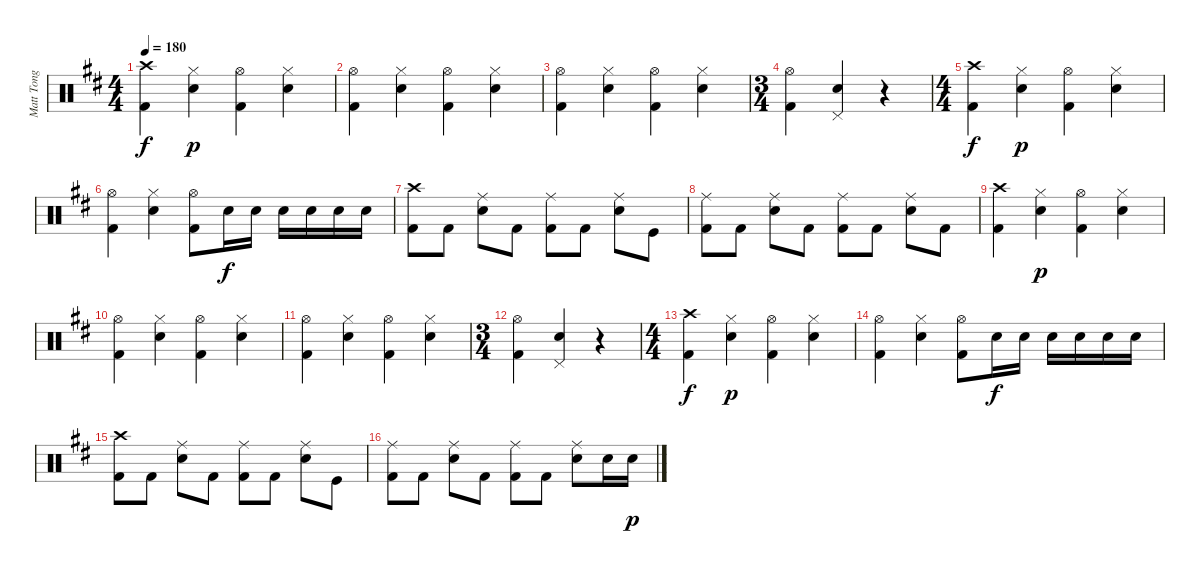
\track ("Matt Tong" "Matt Tong") {instrument percussion}
\staff {score}
\articulation defaults
\ts (4 4)
\tempo 180
\clef neutral
\ks d
("Crash high (hit)" "Kick (hit) 2").4{dy f} ("Hi-Hat (closed)" "Electric Snare (hit)").4{dy p} ("Hi-Hat (open)" "Kick (hit) 2").4 ("Hi-Hat (closed)" "Electric Snare (hit)").4 |
("Hi-Hat (open)" "Kick (hit) 2").4 ("Hi-Hat (closed)" "Electric Snare (hit)").4 ("Hi-Hat (open)" "Kick (hit) 2").4 ("Hi-Hat (closed)" "Electric Snare (hit)").4 |
("Hi-Hat (open)" "Kick (hit) 2").4 ("Hi-Hat (closed)" "Electric Snare (hit)").4 ("Hi-Hat (open)" "Kick (hit) 2").4 ("Hi-Hat (closed)" "Electric Snare (hit)").4 |
\ts (3 4)
("Hi-Hat (open)" "Kick (hit) 2").4 ("Pedal Hi-Hat (hit)" "Electric Snare (hit)").4 r.4 |
\ts (4 4)
("Crash high (hit)" "Kick (hit) 2").4{dy f} ("Hi-Hat (closed)" "Electric Snare (hit)").4{dy p} ("Hi-Hat (open)" "Kick (hit) 2").4 ("Hi-Hat (closed)" "Electric Snare (hit)").4 |
("Hi-Hat (open)" "Kick (hit) 2").4 ("Hi-Hat (closed)" "Electric Snare (hit)").4 ("Hi-Hat (open)" "Kick (hit) 2").8 "Electric Snare (hit)".16{dy f} "Electric Snare (hit)".16 "Electric Snare (hit)".16 "Electric Snare (hit)".16 "Electric Snare (hit)".16 "Electric Snare (hit)".16 |
("Crash high (hit)" "Kick (hit) 2").8 "Kick (hit) 2".8 ("Ride (middle)" "Electric Snare (hit)").8 "Kick (hit) 2".8 ("Ride (middle)" "Kick (hit) 2").8 "Kick (hit) 2".8 ("Ride (middle)" "Electric Snare (hit)").8 "Kick (hit)".8 |
("Ride (middle)" "Kick (hit) 2").8 "Kick (hit) 2".8 ("Ride (middle)" "Electric Snare (hit)").8 "Kick (hit) 2".8 ("Ride (middle)" "Kick (hit) 2").8 "Kick (hit) 2".8 ("Ride (middle)" "Electric Snare (hit)").8 "Kick (hit) 2".8 |
("Crash high (hit)" "Kick (hit) 2").4 ("Hi-Hat (closed)" "Electric Snare (hit)").4{dy p} ("Hi-Hat (open)" "Kick (hit) 2").4 ("Hi-Hat (closed)" "Electric Snare (hit)").4 |
("Hi-Hat (open)" "Kick (hit) 2").4 ("Hi-Hat (closed)" "Electric Snare (hit)").4 ("Hi-Hat (open)" "Kick (hit) 2").4 ("Hi-Hat (closed)" "Electric Snare (hit)").4 |
("Hi-Hat (open)" "Kick (hit) 2").4 ("Hi-Hat (closed)" "Electric Snare (hit)").4 ("Hi-Hat (open)" "Kick (hit) 2").4 ("Hi-Hat (closed)" "Electric Snare (hit)").4 |
\ts (3 4)
("Hi-Hat (open)" "Kick (hit) 2").4 ("Pedal Hi-Hat (hit)" "Electric Snare (hit)").4 r.4 |
\ts (4 4)
("Crash high (hit)" "Kick (hit) 2").4{dy f} ("Hi-Hat (closed)" "Electric Snare (hit)").4{dy p} ("Hi-Hat (open)" "Kick (hit) 2").4 ("Hi-Hat (closed)" "Electric Snare (hit)").4 |
("Hi-Hat (open)" "Kick (hit) 2").4 ("Hi-Hat (closed)" "Electric Snare (hit)").4 ("Hi-Hat (open)" "Kick (hit) 2").8 "Electric Snare (hit)".16{dy f} "Electric Snare (hit)".16 "Electric Snare (hit)".16 "Electric Snare (hit)".16 "Electric Snare (hit)".16 "Electric Snare (hit)".16 |
("Crash high (hit)" "Kick (hit) 2").8 "Kick (hit) 2".8 ("Ride (middle)" "Electric Snare (hit)").8 "Kick (hit) 2".8 ("Ride (middle)" "Kick (hit) 2").8 "Kick (hit) 2".8 ("Ride (middle)" "Electric Snare (hit)").8 "Kick (hit)".8 |
("Ride (middle)" "Kick (hit) 2").8 "Kick (hit) 2".8 ("Ride (middle)" "Electric Snare (hit)").8 "Kick (hit) 2".8 ("Ride (middle)" "Kick (hit) 2").8 "Kick (hit) 2".8 ("Ride (middle)" "Electric Snare (hit)").8 "Electric Snare (hit)".16 "Electric Snare (hit)".16{dy p}
